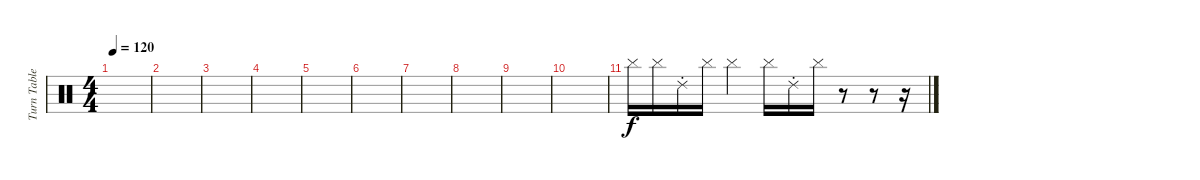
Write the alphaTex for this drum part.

\track ("Turn Tables" "Turn Table") {instrument percussion}
\staff {score}
\articulation defaults
\ts (4 4)
\tempo 120
\clef neutral
\ks c
|
|
|
|
|
|
|
|
|
|
"Cymbal (hit)".16 "Cymbal (hit)".16 "Ride (choke) 2".16 "Cymbal (hit)".16 "Cymbal (hit)".4 "Cymbal (hit)".16 "Ride (choke) 2".16 "Cymbal (hit)".16 r.8 r.8 r.16
